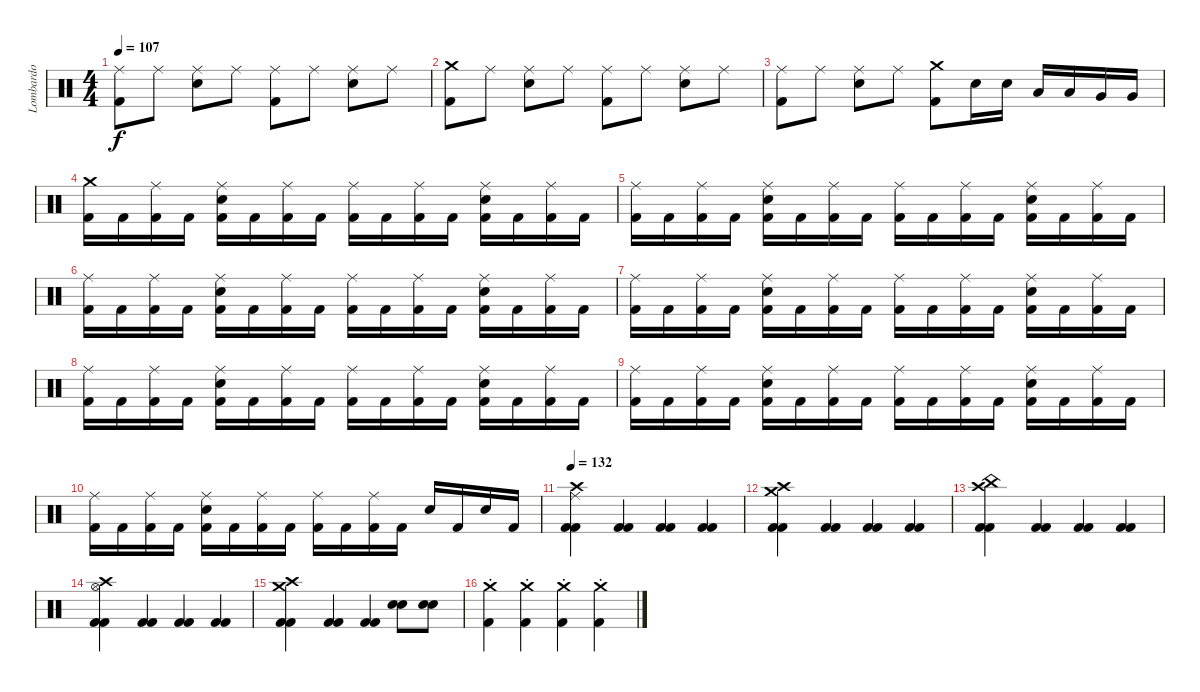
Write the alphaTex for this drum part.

\track ("Lombardo" "Lombardo") {instrument percussion}
\staff {score}
\articulation defaults
\ts (4 4)
\tempo 107
\clef neutral
\ks c
("Ride (middle)" "Kick (hit) 2").8{dy f} "Ride (middle)".8 ("Ride (middle)" "Snare (hit) 2").8 "Ride (middle)".8 ("Ride (middle)" "Kick (hit) 2").8 "Ride (middle)".8 ("Ride (middle)" "Snare (hit) 2").8 "Ride (middle)".8 |
("Crash medium (hit)" "Kick (hit) 2").8 "Ride (middle)".8 ("Ride (middle)" "Snare (hit) 2").8 "Ride (middle)".8 ("Ride (middle)" "Kick (hit) 2").8 "Ride (middle)".8 ("Ride (middle)" "Snare (hit) 2").8 "Ride (middle)".8 |
("Ride (middle)" "Kick (hit) 2").8 "Ride (middle)".8 ("Ride (middle)" "Snare (hit) 2").8 "Ride (middle)".8 ("Crash medium (hit)" "Kick (hit) 2").8 "Snare (hit) 2".16 "Snare (hit) 2".16 "Low Tom (hit)".16 "Low Tom (hit)".16 "Very Low Tom (hit)".16 "Very Low Tom (hit)".16 |
("Crash medium (hit)" "Kick (hit) 2").16 "Kick (hit) 2".16 ("Ride (middle)" "Kick (hit) 2").16 "Kick (hit) 2".16 ("Ride (middle)" "Snare (hit) 2" "Kick (hit) 2").16 "Kick (hit) 2".16 ("Ride (middle)" "Kick (hit) 2").16 "Kick (hit) 2".16 ("Ride (middle)" "Kick (hit) 2").16 "Kick (hit) 2".16 ("Ride (middle)" "Kick (hit) 2").16 "Kick (hit) 2".16 ("Ride (middle)" "Snare (hit) 2" "Kick (hit) 2").16 "Kick (hit) 2".16 ("Ride (middle)" "Kick (hit) 2").16 "Kick (hit) 2".16 |
("Ride (middle)" "Kick (hit) 2").16 "Kick (hit) 2".16 ("Ride (middle)" "Kick (hit) 2").16 "Kick (hit) 2".16 ("Ride (middle)" "Snare (hit) 2" "Kick (hit) 2").16 "Kick (hit) 2".16 ("Ride (middle)" "Kick (hit) 2").16 "Kick (hit) 2".16 ("Ride (middle)" "Kick (hit) 2").16 "Kick (hit) 2".16 ("Ride (middle)" "Kick (hit) 2").16 "Kick (hit) 2".16 ("Ride (middle)" "Snare (hit) 2" "Kick (hit) 2").16 "Kick (hit) 2".16 ("Ride (middle)" "Kick (hit) 2").16 "Kick (hit) 2".16 |
("Ride (middle)" "Kick (hit) 2").16 "Kick (hit) 2".16 ("Ride (middle)" "Kick (hit) 2").16 "Kick (hit) 2".16 ("Ride (middle)" "Snare (hit) 2" "Kick (hit) 2").16 "Kick (hit) 2".16 ("Ride (middle)" "Kick (hit) 2").16 "Kick (hit) 2".16 ("Ride (middle)" "Kick (hit) 2").16 "Kick (hit) 2".16 ("Ride (middle)" "Kick (hit) 2").16 "Kick (hit) 2".16 ("Ride (middle)" "Snare (hit) 2" "Kick (hit) 2").16 "Kick (hit) 2".16 ("Ride (middle)" "Kick (hit) 2").16 "Kick (hit) 2".16 |
("Ride (middle)" "Kick (hit) 2").16 "Kick (hit) 2".16 ("Ride (middle)" "Kick (hit) 2").16 "Kick (hit) 2".16 ("Ride (middle)" "Snare (hit) 2" "Kick (hit) 2").16 "Kick (hit) 2".16 ("Ride (middle)" "Kick (hit) 2").16 "Kick (hit) 2".16 ("Ride (middle)" "Kick (hit) 2").16 "Kick (hit) 2".16 ("Ride (middle)" "Kick (hit) 2").16 "Kick (hit) 2".16 ("Ride (middle)" "Snare (hit) 2" "Kick (hit) 2").16 "Kick (hit) 2".16 ("Ride (middle)" "Kick (hit) 2").16 "Kick (hit) 2".16 |
("Ride (middle)" "Kick (hit) 2").16 "Kick (hit) 2".16 ("Ride (middle)" "Kick (hit) 2").16 "Kick (hit) 2".16 ("Ride (middle)" "Snare (hit) 2" "Kick (hit) 2").16 "Kick (hit) 2".16 ("Ride (middle)" "Kick (hit) 2").16 "Kick (hit) 2".16 ("Ride (middle)" "Kick (hit) 2").16 "Kick (hit) 2".16 ("Ride (middle)" "Kick (hit) 2").16 "Kick (hit) 2".16 ("Ride (middle)" "Snare (hit) 2" "Kick (hit) 2").16 "Kick (hit) 2".16 ("Ride (middle)" "Kick (hit) 2").16 "Kick (hit) 2".16 |
("Ride (middle)" "Kick (hit) 2").16 "Kick (hit) 2".16 ("Ride (middle)" "Kick (hit) 2").16 "Kick (hit) 2".16 ("Ride (middle)" "Snare (hit) 2" "Kick (hit) 2").16 "Kick (hit) 2".16 ("Ride (middle)" "Kick (hit) 2").16 "Kick (hit) 2".16 ("Ride (middle)" "Kick (hit) 2").16 "Kick (hit) 2".16 ("Ride (middle)" "Kick (hit) 2").16 "Kick (hit) 2".16 ("Ride (middle)" "Snare (hit) 2" "Kick (hit) 2").16 "Kick (hit) 2".16 ("Ride (middle)" "Kick (hit) 2").16 "Kick (hit) 2".16 |
("Ride (middle)" "Kick (hit) 2").16 "Kick (hit) 2".16 ("Ride (middle)" "Kick (hit) 2").16 "Kick (hit) 2".16 ("Ride (middle)" "Snare (hit) 2" "Kick (hit) 2").16 "Kick (hit) 2".16 ("Ride (middle)" "Kick (hit) 2").16 "Kick (hit) 2".16 ("Ride (middle)" "Kick (hit) 2").16 "Kick (hit) 2".16 ("Ride (middle)" "Kick (hit) 2").16 "Kick (hit) 2".16 "Snare (hit) 2".16 "Kick (hit) 2".16 "Snare (hit) 2".16 "Kick (hit) 2".16 |
\tempo 132
("Ride (middle)" "Crash high (hit)" "Kick (hit) 2" "Kick (hit) 2").4 ("Kick (hit) 2" "Kick (hit) 2").4 ("Kick (hit) 2" "Kick (hit) 2").4 ("Kick (hit) 2" "Kick (hit) 2").4 |
("Crash medium (hit)" "Crash high (hit)" "Kick (hit) 2" "Kick (hit) 2").4 ("Kick (hit) 2" "Kick (hit) 2").4 ("Kick (hit) 2" "Kick (hit) 2").4 ("Kick (hit) 2" "Kick (hit) 2").4 |
("China (hit)" "Crash high (hit)" "Kick (hit) 2" "Kick (hit) 2").4 ("Kick (hit) 2" "Kick (hit) 2").4 ("Kick (hit) 2" "Kick (hit) 2").4 ("Kick (hit) 2" "Kick (hit) 2").4 |
("Hi-Hat (open)" "Crash high (hit)" "Kick (hit) 2" "Kick (hit) 2").4 ("Kick (hit) 2" "Kick (hit) 2").4 ("Kick (hit) 2" "Kick (hit) 2").4 ("Kick (hit) 2" "Kick (hit) 2").4 |
("Crash medium (hit)" "Crash high (hit)" "Kick (hit) 2" "Kick (hit) 2").4 ("Kick (hit) 2" "Kick (hit) 2").4 ("Kick (hit) 2" "Kick (hit) 2").4 ("Snare (hit) 2" "Snare (hit) 2").8 ("Snare (hit) 2" "Snare (hit) 2").8 |
("Crash medium (hit)"{st} "Kick (hit) 2").4 ("Crash medium (hit)"{st} "Kick (hit) 2").4 ("Crash medium (hit)"{st} "Kick (hit) 2").4 ("Crash medium (hit)"{st} "Kick (hit) 2").4
